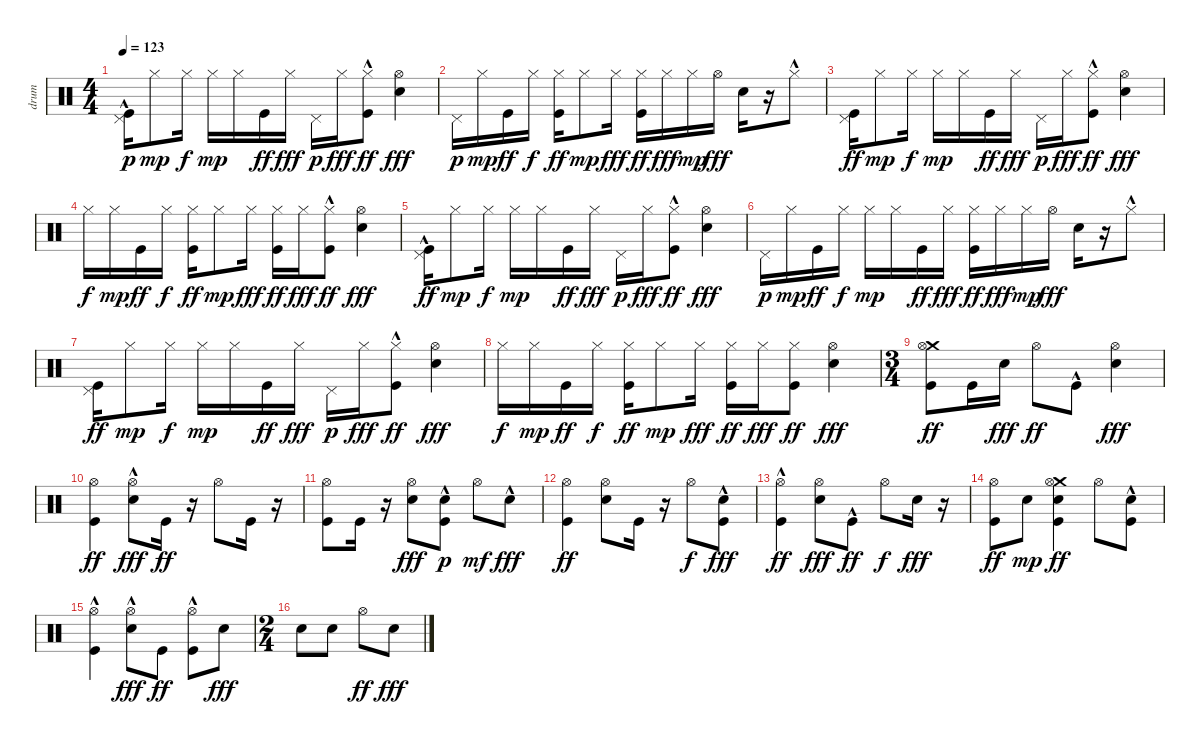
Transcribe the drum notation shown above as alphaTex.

\track ("drum" "drum") {instrument percussion}
\staff {score}
\articulation defaults
\ts (4 4)
\tempo 123
\clef neutral
\ks c
("Kick (hit)"{hac} "Pedal Hi-Hat (hit)").16{dy p} "Hi-Hat (closed)".8{dy mp} "Hi-Hat (closed)".16{dy f} "Hi-Hat (closed)".16{dy mp} "Hi-Hat (closed)".16 "Kick (hit)".16{dy ff} "Hi-Hat (closed)".16{dy fff} "Pedal Hi-Hat (hit)".16{dy p} "Hi-Hat (closed)".16{dy fff} ("Hi-Hat (closed)"{hac} "Kick (hit)").8{dy ff} ("Electric Snare (hit)" "Hi-Hat (open)").4{dy fff} |
"Pedal Hi-Hat (hit)".16{dy p} "Hi-Hat (closed)".16{dy mp} "Kick (hit)".16{dy ff} "Hi-Hat (closed)".16{dy f} ("Hi-Hat (closed)" "Kick (hit)").16{dy ff} "Hi-Hat (closed)".8{dy mp} "Hi-Hat (closed)".16{dy fff} ("Hi-Hat (closed)" "Kick (hit)").16{dy ff} "Hi-Hat (closed)".16{dy fff} "Hi-Hat (closed)".16{dy mp} "Hi-Hat (open)".16{dy fff} "Electric Snare (hit)".16 r.16 "Hi-Hat (closed)"{hac}.8 |
("Pedal Hi-Hat (hit)" "Kick (hit)").16{dy ff} "Hi-Hat (closed)".8{dy mp} "Hi-Hat (closed)".16{dy f} "Hi-Hat (closed)".16{dy mp} "Hi-Hat (closed)".16 "Kick (hit)".16{dy ff} "Hi-Hat (closed)".16{dy fff} "Pedal Hi-Hat (hit)".16{dy p} "Hi-Hat (closed)".16{dy fff} ("Hi-Hat (closed)"{hac} "Kick (hit)").8{dy ff} ("Hi-Hat (open)" "Electric Snare (hit)").4{dy fff} |
"Hi-Hat (closed)".16{dy f} "Hi-Hat (closed)".16{dy mp} "Kick (hit)".16{dy ff} "Hi-Hat (closed)".16{dy f} ("Hi-Hat (closed)" "Kick (hit)").16{dy ff} "Hi-Hat (closed)".8{dy mp} "Hi-Hat (closed)".16{dy fff} ("Hi-Hat (closed)" "Kick (hit)").16{dy ff} "Hi-Hat (closed)".16{dy fff} ("Hi-Hat (closed)"{hac} "Kick (hit)").8{dy ff} ("Hi-Hat (open)" "Electric Snare (hit)").4{dy fff} |
("Pedal Hi-Hat (hit)" "Kick (hit)"{hac}).16{dy ff} "Hi-Hat (closed)".8{dy mp} "Hi-Hat (closed)".16{dy f} "Hi-Hat (closed)".16{dy mp} "Hi-Hat (closed)".16 "Kick (hit)".16{dy ff} "Hi-Hat (closed)".16{dy fff} "Pedal Hi-Hat (hit)".16{dy p} "Hi-Hat (closed)".16{dy fff} ("Hi-Hat (closed)"{hac} "Kick (hit)").8{dy ff} ("Hi-Hat (open)" "Electric Snare (hit)").4{dy fff} |
"Pedal Hi-Hat (hit)".16{dy p} "Hi-Hat (closed)".16{dy mp} "Kick (hit)".16{dy ff} "Hi-Hat (closed)".16{dy f} "Hi-Hat (closed)".16{dy mp} "Hi-Hat (closed)".16 "Kick (hit)".16{dy ff} "Hi-Hat (closed)".16{dy fff} ("Hi-Hat (closed)" "Kick (hit)").16{dy ff} "Hi-Hat (closed)".16{dy fff} "Hi-Hat (closed)".16{dy mp} "Hi-Hat (open)".16{dy fff} "Electric Snare (hit)".16 r.16 "Hi-Hat (closed)"{hac}.8 |
("Pedal Hi-Hat (hit)" "Kick (hit)").16{dy ff} "Hi-Hat (closed)".8{dy mp} "Hi-Hat (closed)".16{dy f} "Hi-Hat (closed)".16{dy mp} "Hi-Hat (closed)".16 "Kick (hit)".16{dy ff} "Hi-Hat (closed)".16{dy fff} "Pedal Hi-Hat (hit)".16{dy p} "Hi-Hat (closed)".16{dy fff} ("Hi-Hat (closed)"{hac} "Kick (hit)").8{dy ff} ("Hi-Hat (open)" "Electric Snare (hit)").4{dy fff} |
"Hi-Hat (closed)".16{dy f} "Hi-Hat (closed)".16{dy mp} "Kick (hit)".16{dy ff} "Hi-Hat (closed)".16{dy f} ("Hi-Hat (closed)" "Kick (hit)").16{dy ff} "Hi-Hat (closed)".8{dy mp} "Hi-Hat (closed)".16{dy fff} ("Hi-Hat (closed)" "Kick (hit)").16{dy ff} "Hi-Hat (closed)".16{dy fff} ("Hi-Hat (closed)" "Kick (hit)").8{dy ff} ("Hi-Hat (open)" "Electric Snare (hit)").4{dy fff} |
\ts (3 4)
("Crash medium (hit)" "Kick (hit)" "Hi-Hat (open)").8{dy ff} "Kick (hit)".16 "Electric Snare (hit)".16{dy fff} "Hi-Hat (open)".8{dy ff} "Kick (hit)"{hac}.8 ("Hi-Hat (open)" "Electric Snare (hit)").4{dy fff} |
("Kick (hit)" "Hi-Hat (open)").4{dy ff} ("Hi-Hat (open)" "Electric Snare (hit)"{hac}).8{dy fff} "Kick (hit)".16{dy ff} r.16 "Hi-Hat (open)".8 "Kick (hit)".16 r.16 |
("Kick (hit)" "Hi-Hat (open)").8 "Kick (hit)".16 r.16 ("Electric Snare (hit)" "Hi-Hat (open)").8{dy fff} ("Kick (hit)"{hac} "Electric Snare (hit)").8{dy p} "Hi-Hat (open)".8{dy mf} "Electric Snare (hit)"{hac}.8{dy fff} |
("Kick (hit)" "Hi-Hat (open)").4{dy ff} ("Electric Snare (hit)" "Hi-Hat (open)").8 "Kick (hit)".16 r.16 "Hi-Hat (open)".8{dy f} ("Kick (hit)" "Electric Snare (hit)"{hac}).8{dy fff} |
("Hi-Hat (open)" "Kick (hit)"{hac}).4{dy ff} ("Hi-Hat (open)" "Electric Snare (hit)").8{dy fff} "Kick (hit)"{hac}.8{dy ff} "Hi-Hat (open)".8{dy f} "Electric Snare (hit)".16{dy fff} r.16 |
("Hi-Hat (open)" "Kick (hit)").8{dy ff} "Electric Snare (hit)".8{dy mp} ("Kick (hit)" "Crash medium (hit)" "Electric Snare (hit)" "Hi-Hat (open)").4{dy ff} "Hi-Hat (open)".8 ("Electric Snare (hit)"{hac} "Kick (hit)").8 |
("Hi-Hat (open)" "Kick (hit)"{hac}).4 ("Hi-Hat (open)" "Electric Snare (hit)"{hac}).8{dy fff} "Kick (hit)".8{dy ff} ("Hi-Hat (open)" "Kick (hit)"{hac}).8 "Electric Snare (hit)".8{dy fff} |
\ts (2 4)
"Electric Snare (hit)".8 "Electric Snare (hit)".8 "Hi-Hat (open)".8{dy ff} "Electric Snare (hit)".8{dy fff}
